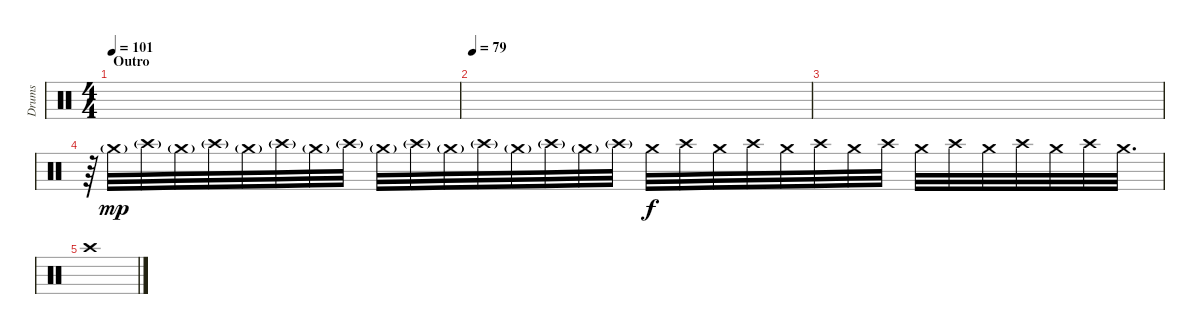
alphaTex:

\track ("Drums" "Drums") {instrument percussion}
\staff {score}
\articulation defaults
\ts (4 4)
\section ("" "Outro")
\tempo 101
\clef neutral
\ks c
|
\tempo 79
|
|
r.64 "Crash medium (hit)"{g}.32{dy mp} "Crash high (hit)"{g}.32 "Crash medium (hit)"{g}.32 "Crash high (hit)"{g}.32 "Crash medium (hit)"{g}.32 "Crash high (hit)"{g}.32 "Crash medium (hit)"{g}.32 "Crash high (hit)"{g}.32 "Crash medium (hit)"{g}.32 "Crash high (hit)"{g}.32 "Crash medium (hit)"{g}.32 "Crash high (hit)"{g}.32 "Crash medium (hit)"{g}.32 "Crash high (hit)"{g}.32 "Crash medium (hit)"{g}.32 "Crash high (hit)"{g}.32 "Crash medium (hit)".32{dy f} "Crash high (hit)".32 "Crash medium (hit)".32 "Crash high (hit)".32 "Crash medium (hit)".32 "Crash high (hit)".32 "Crash medium (hit)".32 "Crash high (hit)".32 "Crash medium (hit)".32 "Crash high (hit)".32 "Crash medium (hit)".32 "Crash high (hit)".32 "Crash medium (hit)".32 "Crash high (hit)".32 "Crash medium (hit)".32{d} |
"Crash high (hit)".1
